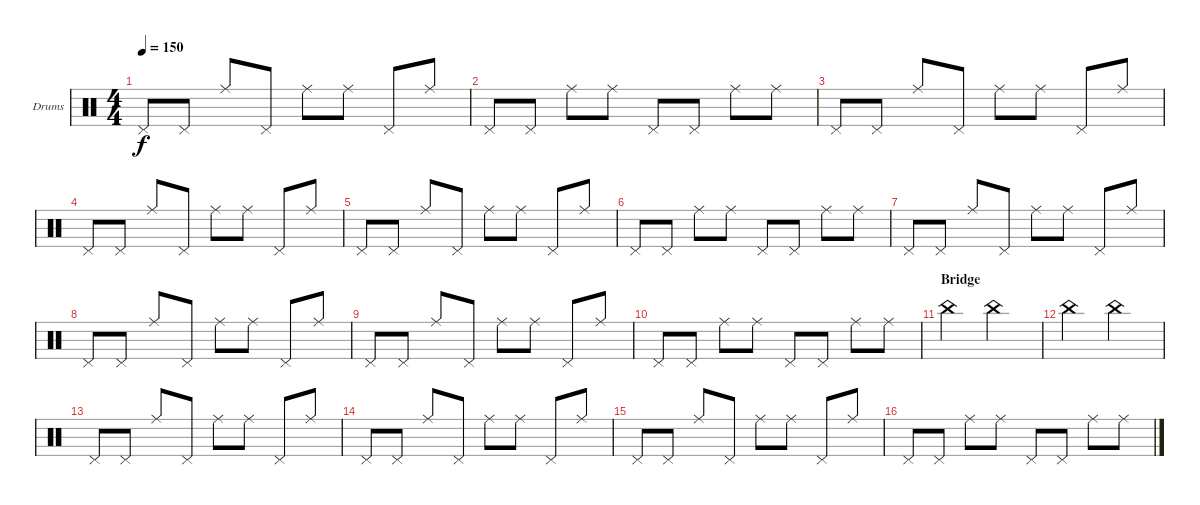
\defaultSystemsLayout 4
\bracketExtendMode groupsimilarinstruments
\firstSystemTrackNameOrientation horizontal
\otherSystemsTrackNameOrientation horizontal
\track ("Nazar" "Drums") {instrument percussion}
\staff {score}
\articulation defaults
\ts (4 4)
\tempo 150
\clef neutral
\ks c "Pedal Hi-Hat (hit)".8{dy f} "Pedal Hi-Hat (hit)".8 "Ride (middle)".8 "Pedal Hi-Hat (hit)".8 "Ride (middle)".8 "Ride (middle)".8 "Pedal Hi-Hat (hit)".8 "Ride (middle)".8
|
"Pedal Hi-Hat (hit)".8 "Pedal Hi-Hat (hit)".8 "Ride (middle)".8 "Ride (middle)".8 "Pedal Hi-Hat (hit)".8 "Pedal Hi-Hat (hit)".8 "Ride (middle)".8 "Ride (middle)".8 |
"Pedal Hi-Hat (hit)".8 "Pedal Hi-Hat (hit)".8 "Ride (middle)".8 "Pedal Hi-Hat (hit)".8 "Ride (middle)".8 "Ride (middle)".8 "Pedal Hi-Hat (hit)".8 "Ride (middle)".8 |
"Pedal Hi-Hat (hit)".8 "Pedal Hi-Hat (hit)".8 "Ride (middle)".8 "Pedal Hi-Hat (hit)".8 "Ride (middle)".8 "Ride (middle)".8 "Pedal Hi-Hat (hit)".8 "Ride (middle)".8 |
"Pedal Hi-Hat (hit)".8 "Pedal Hi-Hat (hit)".8 "Ride (middle)".8 "Pedal Hi-Hat (hit)".8 "Ride (middle)".8 "Ride (middle)".8 "Pedal Hi-Hat (hit)".8 "Ride (middle)".8 |
"Pedal Hi-Hat (hit)".8 "Pedal Hi-Hat (hit)".8 "Ride (middle)".8 "Ride (middle)".8 "Pedal Hi-Hat (hit)".8 "Pedal Hi-Hat (hit)".8 "Ride (middle)".8 "Ride (middle)".8 |
"Pedal Hi-Hat (hit)".8 "Pedal Hi-Hat (hit)".8 "Ride (middle)".8 "Pedal Hi-Hat (hit)".8 "Ride (middle)".8 "Ride (middle)".8 "Pedal Hi-Hat (hit)".8 "Ride (middle)".8 |
"Pedal Hi-Hat (hit)".8 "Pedal Hi-Hat (hit)".8 "Ride (middle)".8 "Pedal Hi-Hat (hit)".8 "Ride (middle)".8 "Ride (middle)".8 "Pedal Hi-Hat (hit)".8 "Ride (middle)".8 |
"Pedal Hi-Hat (hit)".8 "Pedal Hi-Hat (hit)".8 "Ride (middle)".8 "Pedal Hi-Hat (hit)".8 "Ride (middle)".8 "Ride (middle)".8 "Pedal Hi-Hat (hit)".8 "Ride (middle)".8 |
"Pedal Hi-Hat (hit)".8 "Pedal Hi-Hat (hit)".8 "Ride (middle)".8 "Ride (middle)".8 "Pedal Hi-Hat (hit)".8 "Pedal Hi-Hat (hit)".8 "Ride (middle)".8 "Ride (middle)".8 |
\section ("" "Bridge")
"China (hit)".2 "China (hit)".2 |
"China (hit)".2 "China (hit)".2 |
"Pedal Hi-Hat (hit)".8 "Pedal Hi-Hat (hit)".8 "Ride (middle)".8 "Pedal Hi-Hat (hit)".8 "Ride (middle)".8 "Ride (middle)".8 "Pedal Hi-Hat (hit)".8 "Ride (middle)".8 |
"Pedal Hi-Hat (hit)".8 "Pedal Hi-Hat (hit)".8 "Ride (middle)".8 "Pedal Hi-Hat (hit)".8 "Ride (middle)".8 "Ride (middle)".8 "Pedal Hi-Hat (hit)".8 "Ride (middle)".8 |
"Pedal Hi-Hat (hit)".8 "Pedal Hi-Hat (hit)".8 "Ride (middle)".8 "Pedal Hi-Hat (hit)".8 "Ride (middle)".8 "Ride (middle)".8 "Pedal Hi-Hat (hit)".8 "Ride (middle)".8 |
"Pedal Hi-Hat (hit)".8 "Pedal Hi-Hat (hit)".8 "Ride (middle)".8 "Ride (middle)".8 "Pedal Hi-Hat (hit)".8 "Pedal Hi-Hat (hit)".8 "Ride (middle)".8 "Ride (middle)".8
